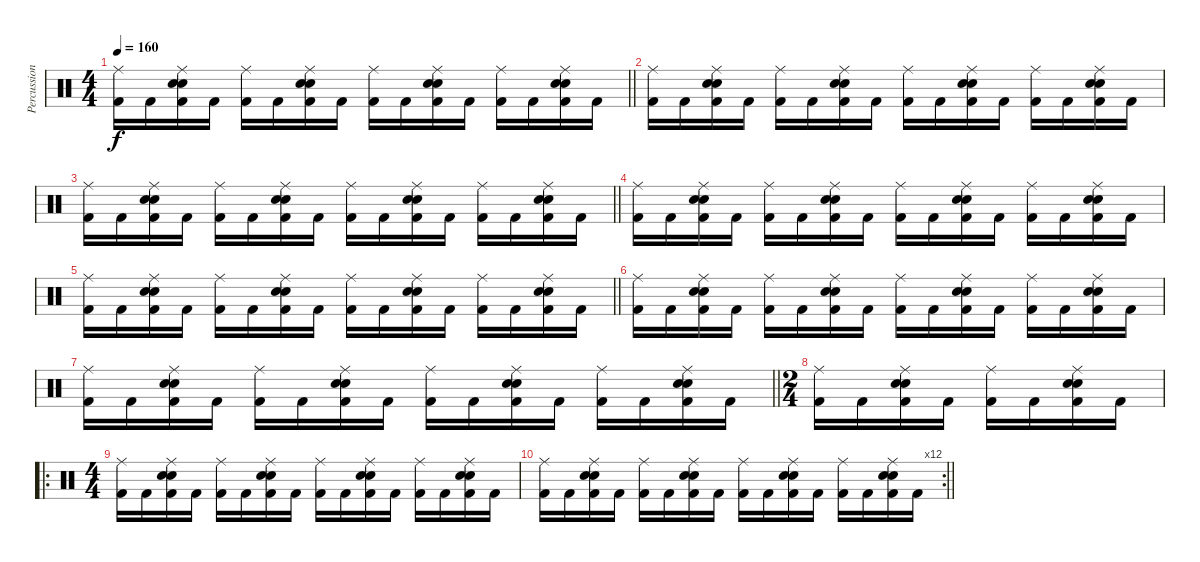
\track ("Percussion" "Percussion") {instrument percussion}
\staff {score}
\articulation defaults
\ts (4 4)
\tempo 160
\clef neutral
\barLineRight lightlight
\ks c
("Ride (middle)" "Kick (hit) 2").16{dy f} "Kick (hit) 2".16 ("Electric Snare (hit)" "Snare (hit) 2" "Ride (middle)" "Kick (hit) 2").16 "Kick (hit) 2".16 ("Ride (middle)" "Kick (hit) 2").16 "Kick (hit) 2".16 ("Electric Snare (hit)" "Snare (hit) 2" "Ride (middle)" "Kick (hit) 2").16 "Kick (hit) 2".16 ("Ride (middle)" "Kick (hit) 2").16 "Kick (hit) 2".16 ("Electric Snare (hit)" "Snare (hit) 2" "Ride (middle)" "Kick (hit) 2").16 "Kick (hit) 2".16 ("Ride (middle)" "Kick (hit) 2").16 "Kick (hit) 2".16 ("Electric Snare (hit)" "Snare (hit) 2" "Ride (middle)" "Kick (hit) 2").16 "Kick (hit) 2".16 |
("Ride (middle)" "Kick (hit) 2").16 "Kick (hit) 2".16 ("Electric Snare (hit)" "Snare (hit) 2" "Ride (middle)" "Kick (hit) 2").16 "Kick (hit) 2".16 ("Ride (middle)" "Kick (hit) 2").16 "Kick (hit) 2".16 ("Electric Snare (hit)" "Snare (hit) 2" "Ride (middle)" "Kick (hit) 2").16 "Kick (hit) 2".16 ("Ride (middle)" "Kick (hit) 2").16 "Kick (hit) 2".16 ("Electric Snare (hit)" "Snare (hit) 2" "Ride (middle)" "Kick (hit) 2").16 "Kick (hit) 2".16 ("Ride (middle)" "Kick (hit) 2").16 "Kick (hit) 2".16 ("Electric Snare (hit)" "Snare (hit) 2" "Ride (middle)" "Kick (hit) 2").16 "Kick (hit) 2".16 |
\barLineRight lightlight
("Ride (middle)" "Kick (hit) 2").16 "Kick (hit) 2".16 ("Electric Snare (hit)" "Snare (hit) 2" "Ride (middle)" "Kick (hit) 2").16 "Kick (hit) 2".16 ("Ride (middle)" "Kick (hit) 2").16 "Kick (hit) 2".16 ("Electric Snare (hit)" "Snare (hit) 2" "Ride (middle)" "Kick (hit) 2").16 "Kick (hit) 2".16 ("Ride (middle)" "Kick (hit) 2").16 "Kick (hit) 2".16 ("Electric Snare (hit)" "Snare (hit) 2" "Ride (middle)" "Kick (hit) 2").16 "Kick (hit) 2".16 ("Ride (middle)" "Kick (hit) 2").16 "Kick (hit) 2".16 ("Electric Snare (hit)" "Snare (hit) 2" "Ride (middle)" "Kick (hit) 2").16 "Kick (hit) 2".16 |
("Ride (middle)" "Kick (hit) 2").16 "Kick (hit) 2".16 ("Electric Snare (hit)" "Snare (hit) 2" "Ride (middle)" "Kick (hit) 2").16 "Kick (hit) 2".16 ("Ride (middle)" "Kick (hit) 2").16 "Kick (hit) 2".16 ("Electric Snare (hit)" "Snare (hit) 2" "Ride (middle)" "Kick (hit) 2").16 "Kick (hit) 2".16 ("Ride (middle)" "Kick (hit) 2").16 "Kick (hit) 2".16 ("Electric Snare (hit)" "Snare (hit) 2" "Ride (middle)" "Kick (hit) 2").16 "Kick (hit) 2".16 ("Ride (middle)" "Kick (hit) 2").16 "Kick (hit) 2".16 ("Electric Snare (hit)" "Snare (hit) 2" "Ride (middle)" "Kick (hit) 2").16 "Kick (hit) 2".16 |
\barLineRight lightlight
("Ride (middle)" "Kick (hit) 2").16 "Kick (hit) 2".16 ("Electric Snare (hit)" "Snare (hit) 2" "Ride (middle)" "Kick (hit) 2").16 "Kick (hit) 2".16 ("Ride (middle)" "Kick (hit) 2").16 "Kick (hit) 2".16 ("Electric Snare (hit)" "Snare (hit) 2" "Ride (middle)" "Kick (hit) 2").16 "Kick (hit) 2".16 ("Ride (middle)" "Kick (hit) 2").16 "Kick (hit) 2".16 ("Electric Snare (hit)" "Snare (hit) 2" "Ride (middle)" "Kick (hit) 2").16 "Kick (hit) 2".16 ("Ride (middle)" "Kick (hit) 2").16 "Kick (hit) 2".16 ("Electric Snare (hit)" "Snare (hit) 2" "Ride (middle)" "Kick (hit) 2").16 "Kick (hit) 2".16 |
("Ride (middle)" "Kick (hit) 2").16 "Kick (hit) 2".16 ("Electric Snare (hit)" "Snare (hit) 2" "Ride (middle)" "Kick (hit) 2").16 "Kick (hit) 2".16 ("Ride (middle)" "Kick (hit) 2").16 "Kick (hit) 2".16 ("Electric Snare (hit)" "Snare (hit) 2" "Ride (middle)" "Kick (hit) 2").16 "Kick (hit) 2".16 ("Ride (middle)" "Kick (hit) 2").16 "Kick (hit) 2".16 ("Electric Snare (hit)" "Snare (hit) 2" "Ride (middle)" "Kick (hit) 2").16 "Kick (hit) 2".16 ("Ride (middle)" "Kick (hit) 2").16 "Kick (hit) 2".16 ("Electric Snare (hit)" "Snare (hit) 2" "Ride (middle)" "Kick (hit) 2").16 "Kick (hit) 2".16 |
\barLineRight lightlight
("Ride (middle)" "Kick (hit) 2").16 "Kick (hit) 2".16 ("Electric Snare (hit)" "Snare (hit) 2" "Ride (middle)" "Kick (hit) 2").16 "Kick (hit) 2".16 ("Ride (middle)" "Kick (hit) 2").16 "Kick (hit) 2".16 ("Electric Snare (hit)" "Snare (hit) 2" "Ride (middle)" "Kick (hit) 2").16 "Kick (hit) 2".16 ("Ride (middle)" "Kick (hit) 2").16 "Kick (hit) 2".16 ("Electric Snare (hit)" "Snare (hit) 2" "Ride (middle)" "Kick (hit) 2").16 "Kick (hit) 2".16 ("Ride (middle)" "Kick (hit) 2").16 "Kick (hit) 2".16 ("Electric Snare (hit)" "Snare (hit) 2" "Ride (middle)" "Kick (hit) 2").16 "Kick (hit) 2".16 |
\ts (2 4)
("Ride (middle)" "Kick (hit) 2").16 "Kick (hit) 2".16 ("Electric Snare (hit)" "Snare (hit) 2" "Ride (middle)" "Kick (hit) 2").16 "Kick (hit) 2".16 ("Ride (middle)" "Kick (hit) 2").16 "Kick (hit) 2".16 ("Electric Snare (hit)" "Snare (hit) 2" "Ride (middle)" "Kick (hit) 2").16 "Kick (hit) 2".16 |
\ro
\ts (4 4)
("Ride (middle)" "Kick (hit) 2").16 "Kick (hit) 2".16 ("Electric Snare (hit)" "Snare (hit) 2" "Ride (middle)" "Kick (hit) 2").16 "Kick (hit) 2".16 ("Ride (middle)" "Kick (hit) 2").16 "Kick (hit) 2".16 ("Electric Snare (hit)" "Snare (hit) 2" "Ride (middle)" "Kick (hit) 2").16 "Kick (hit) 2".16 ("Ride (middle)" "Kick (hit) 2").16 "Kick (hit) 2".16 ("Electric Snare (hit)" "Snare (hit) 2" "Ride (middle)" "Kick (hit) 2").16 "Kick (hit) 2".16 ("Ride (middle)" "Kick (hit) 2").16 "Kick (hit) 2".16 ("Electric Snare (hit)" "Snare (hit) 2" "Ride (middle)" "Kick (hit) 2").16 "Kick (hit) 2".16 |
\rc 12
\barLineRight lightlight
("Ride (middle)" "Kick (hit) 2").16 "Kick (hit) 2".16 ("Electric Snare (hit)" "Snare (hit) 2" "Ride (middle)" "Kick (hit) 2").16 "Kick (hit) 2".16 ("Ride (middle)" "Kick (hit) 2").16 "Kick (hit) 2".16 ("Electric Snare (hit)" "Snare (hit) 2" "Ride (middle)" "Kick (hit) 2").16 "Kick (hit) 2".16 ("Ride (middle)" "Kick (hit) 2").16 "Kick (hit) 2".16 ("Electric Snare (hit)" "Snare (hit) 2" "Ride (middle)" "Kick (hit) 2").16 "Kick (hit) 2".16 ("Ride (middle)" "Kick (hit) 2").16 "Kick (hit) 2".16 ("Electric Snare (hit)" "Snare (hit) 2" "Ride (middle)" "Kick (hit) 2").16 "Kick (hit) 2".16
